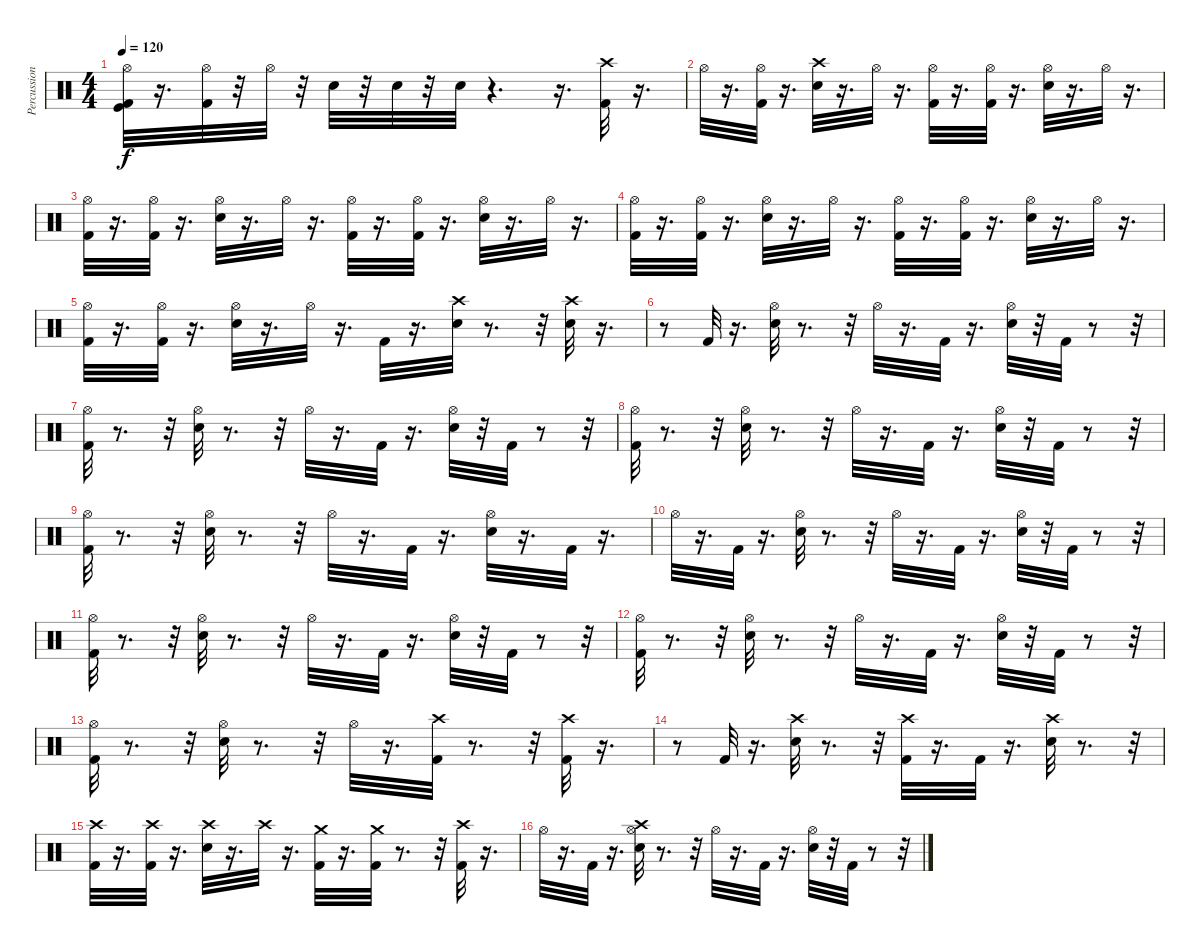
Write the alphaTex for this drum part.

\track ("Percussion" "Percussion") {instrument percussion}
\staff {score}
\articulation defaults
\ts (4 4)
\tempo 120
\clef neutral
\ks c
("Hi-Hat (open)" "Kick (hit) 2" "Kick (hit)").32{dy f} r.16{d} ("Hi-Hat (open)" "Kick (hit) 2").32 r.32 "Hi-Hat (open)".32 r.32 "Electric Snare (hit)".32 r.32 "Electric Snare (hit)".32 r.32 "Electric Snare (hit)".32 r.4{d} r.16{d} ("Kick (hit) 2" "Crash high (hit)").32 r.16{d} |
"Hi-Hat (open)".32 r.16{d} ("Hi-Hat (open)" "Kick (hit) 2").32 r.16{d} ("Crash high (hit)" "Electric Snare (hit)").32 r.16{d} "Hi-Hat (open)".32 r.16{d} ("Kick (hit) 2" "Hi-Hat (open)").32 r.16{d} ("Hi-Hat (open)" "Kick (hit) 2").32 r.16{d} ("Hi-Hat (open)" "Electric Snare (hit)").32 r.16{d} "Hi-Hat (open)".32 r.16{d} |
("Kick (hit) 2" "Hi-Hat (open)").32 r.16{d} ("Kick (hit) 2" "Hi-Hat (open)").32 r.16{d} ("Electric Snare (hit)" "Hi-Hat (open)").32 r.16{d} "Hi-Hat (open)".32 r.16{d} ("Kick (hit) 2" "Hi-Hat (open)").32 r.16{d} ("Kick (hit) 2" "Hi-Hat (open)").32 r.16{d} ("Electric Snare (hit)" "Hi-Hat (open)").32 r.16{d} "Hi-Hat (open)".32 r.16{d} |
("Kick (hit) 2" "Hi-Hat (open)").32 r.16{d} ("Kick (hit) 2" "Hi-Hat (open)").32 r.16{d} ("Electric Snare (hit)" "Hi-Hat (open)").32 r.16{d} "Hi-Hat (open)".32 r.16{d} ("Kick (hit) 2" "Hi-Hat (open)").32 r.16{d} ("Kick (hit) 2" "Hi-Hat (open)").32 r.16{d} ("Electric Snare (hit)" "Hi-Hat (open)").32 r.16{d} "Hi-Hat (open)".32 r.16{d} |
("Kick (hit) 2" "Hi-Hat (open)").32 r.16{d} ("Kick (hit) 2" "Hi-Hat (open)").32 r.16{d} ("Electric Snare (hit)" "Hi-Hat (open)").32 r.16{d} "Hi-Hat (open)".32 r.16{d} "Kick (hit) 2".32 r.16{d} ("Crash high (hit)" "Electric Snare (hit)").32 r.8{d} r.32 ("Crash high (hit)" "Electric Snare (hit)").32 r.16{d} |
r.8 "Kick (hit) 2".32 r.16{d} ("Hi-Hat (open)" "Electric Snare (hit)").32 r.8{d} r.32 "Hi-Hat (open)".32 r.16{d} "Kick (hit) 2".32 r.16{d} ("Electric Snare (hit)" "Hi-Hat (open)").32 r.32 "Kick (hit) 2".32 r.8 r.32 |
("Kick (hit) 2" "Hi-Hat (open)").32 r.8{d} r.32 ("Electric Snare (hit)" "Hi-Hat (open)").32 r.8{d} r.32 "Hi-Hat (open)".32 r.16{d} "Kick (hit) 2".32 r.16{d} ("Electric Snare (hit)" "Hi-Hat (open)").32 r.32 "Kick (hit) 2".32 r.8 r.32 |
("Kick (hit) 2" "Hi-Hat (open)").32 r.8{d} r.32 ("Electric Snare (hit)" "Hi-Hat (open)").32 r.8{d} r.32 "Hi-Hat (open)".32 r.16{d} "Kick (hit) 2".32 r.16{d} ("Electric Snare (hit)" "Hi-Hat (open)").32 r.32 "Kick (hit) 2".32 r.8 r.32 |
("Kick (hit) 2" "Hi-Hat (open)").32 r.8{d} r.32 ("Electric Snare (hit)" "Hi-Hat (open)").32 r.8{d} r.32 "Hi-Hat (open)".32 r.16{d} "Kick (hit) 2".32 r.16{d} ("Electric Snare (hit)" "Hi-Hat (open)").32 r.16{d} "Kick (hit) 2".32 r.16{d} |
"Hi-Hat (open)".32 r.16{d} "Kick (hit) 2".32 r.16{d} ("Hi-Hat (open)" "Electric Snare (hit)").32 r.8{d} r.32 "Hi-Hat (open)".32 r.16{d} "Kick (hit) 2".32 r.16{d} ("Electric Snare (hit)" "Hi-Hat (open)").32 r.32 "Kick (hit) 2".32 r.8 r.32 |
("Kick (hit) 2" "Hi-Hat (open)").32 r.8{d} r.32 ("Electric Snare (hit)" "Hi-Hat (open)").32 r.8{d} r.32 "Hi-Hat (open)".32 r.16{d} "Kick (hit) 2".32 r.16{d} ("Electric Snare (hit)" "Hi-Hat (open)").32 r.32 "Kick (hit) 2".32 r.8 r.32 |
("Kick (hit) 2" "Hi-Hat (open)").32 r.8{d} r.32 ("Electric Snare (hit)" "Hi-Hat (open)").32 r.8{d} r.32 "Hi-Hat (open)".32 r.16{d} "Kick (hit) 2".32 r.16{d} ("Electric Snare (hit)" "Hi-Hat (open)").32 r.32 "Kick (hit) 2".32 r.8 r.32 |
("Kick (hit) 2" "Hi-Hat (open)").32 r.8{d} r.32 ("Electric Snare (hit)" "Hi-Hat (open)").32 r.8{d} r.32 "Hi-Hat (open)".32 r.16{d} ("Crash high (hit)" "Kick (hit) 2").32 r.8{d} r.32 ("Crash high (hit)" "Kick (hit) 2").32 r.16{d} |
r.8 "Kick (hit) 2".32 r.16{d} ("Electric Snare (hit)" "Crash high (hit)").32 r.8{d} r.32 ("Kick (hit) 2" "Crash high (hit)").32 r.16{d} "Kick (hit) 2".32 r.16{d} ("Electric Snare (hit)" "Crash high (hit)").32 r.8{d} r.32 |
("Kick (hit) 2" "Crash high (hit)").32 r.16{d} ("Crash high (hit)" "Kick (hit) 2").32 r.16{d} ("Electric Snare (hit)" "Crash high (hit)").32 r.16{d} "Crash high (hit)".32 r.16{d} ("Crash medium (hit)" "Kick (hit) 2").32 r.16{d} ("Crash medium (hit)" "Kick (hit) 2").32 r.8{d} r.32 ("Kick (hit) 2" "Crash high (hit)").32 r.16{d} |
"Hi-Hat (open)".32 r.16{d} "Kick (hit) 2".32 r.16{d} ("Hi-Hat (open)" "Electric Snare (hit)" "Crash high (hit)").32 r.8{d} r.32 "Hi-Hat (open)".32 r.16{d} "Kick (hit) 2".32 r.16{d} ("Electric Snare (hit)" "Hi-Hat (open)").32 r.32 "Kick (hit) 2".32 r.8 r.32
